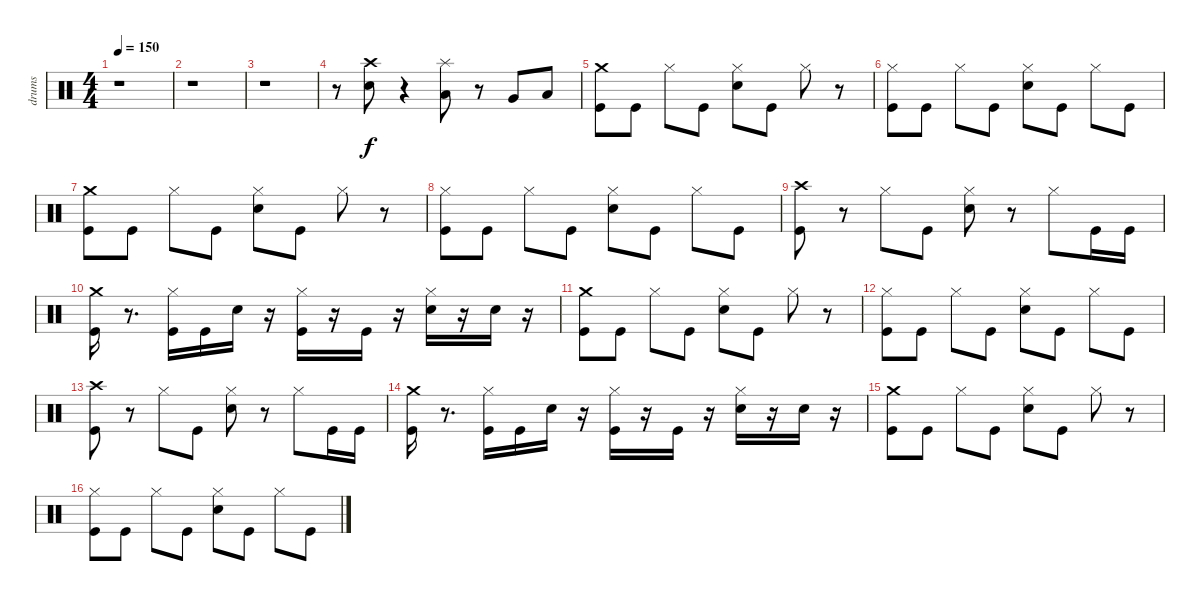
\track ("drums" "drums") {instrument percussion}
\staff {score}
\articulation defaults
\ts (4 4)
\tempo 150
\clef neutral
\ks c
r.1{dy f} |
r.1 |
r.1 |
r.8 ("Crash high (hit)" "Electric Snare (hit)").8 r.4 ("Splash (hit)" "Low Tom (hit)").8 r.8 "Very Low Tom (hit)".8 "Low Floor Tom (hit)".8 |
("Crash medium (hit)" "Kick (hit)").8 "Kick (hit)".8 "Hi-Hat (closed)".8 "Kick (hit)".8 ("Hi-Hat (closed)" "Electric Snare (hit)").8 "Kick (hit)".8 "Hi-Hat (closed)".8 r.8 |
("Hi-Hat (closed)" "Kick (hit)").8 "Kick (hit)".8 "Hi-Hat (closed)".8 "Kick (hit)".8 ("Hi-Hat (closed)" "Electric Snare (hit)").8 "Kick (hit)".8 "Hi-Hat (closed)".8 "Kick (hit)".8 |
("Crash medium (hit)" "Kick (hit)").8 "Kick (hit)".8 "Hi-Hat (closed)".8 "Kick (hit)".8 ("Hi-Hat (closed)" "Electric Snare (hit)").8 "Kick (hit)".8 "Hi-Hat (closed)".8 r.8 |
("Hi-Hat (closed)" "Kick (hit)").8 "Kick (hit)".8 "Hi-Hat (closed)".8 "Kick (hit)".8 ("Hi-Hat (closed)" "Electric Snare (hit)").8 "Kick (hit)".8 "Hi-Hat (closed)".8 "Kick (hit)".8 |
("Crash high (hit)" "Kick (hit)").8 r.8 "Hi-Hat (closed)".8 "Kick (hit)".8 ("Hi-Hat (closed)" "Electric Snare (hit)").8 r.8 "Hi-Hat (closed)".8 "Kick (hit)".16 "Kick (hit)".16 |
("Kick (hit)" "Crash medium (hit)").16 r.8{d} ("Hi-Hat (closed)" "Kick (hit)").16 "Kick (hit)".16 "Electric Snare (hit)".16 r.16 ("Hi-Hat (closed)" "Kick (hit)").16 r.16 "Kick (hit)".16 r.16 ("Hi-Hat (closed)" "Electric Snare (hit)").16 r.16 "Electric Snare (hit)".16 r.16 |
("Crash medium (hit)" "Kick (hit)").8 "Kick (hit)".8 "Hi-Hat (closed)".8 "Kick (hit)".8 ("Hi-Hat (closed)" "Electric Snare (hit)").8 "Kick (hit)".8 "Hi-Hat (closed)".8 r.8 |
("Hi-Hat (closed)" "Kick (hit)").8 "Kick (hit)".8 "Hi-Hat (closed)".8 "Kick (hit)".8 ("Hi-Hat (closed)" "Electric Snare (hit)").8 "Kick (hit)".8 "Hi-Hat (closed)".8 "Kick (hit)".8 |
("Crash high (hit)" "Kick (hit)").8 r.8 "Hi-Hat (closed)".8 "Kick (hit)".8 ("Hi-Hat (closed)" "Electric Snare (hit)").8 r.8 "Hi-Hat (closed)".8 "Kick (hit)".16 "Kick (hit)".16 |
("Kick (hit)" "Crash medium (hit)").16 r.8{d} ("Hi-Hat (closed)" "Kick (hit)").16 "Kick (hit)".16 "Electric Snare (hit)".16 r.16 ("Hi-Hat (closed)" "Kick (hit)").16 r.16 "Kick (hit)".16 r.16 ("Hi-Hat (closed)" "Electric Snare (hit)").16 r.16 "Electric Snare (hit)".16 r.16 |
("Crash medium (hit)" "Kick (hit)").8 "Kick (hit)".8 "Hi-Hat (closed)".8 "Kick (hit)".8 ("Hi-Hat (closed)" "Electric Snare (hit)").8 "Kick (hit)".8 "Hi-Hat (closed)".8 r.8 |
("Hi-Hat (closed)" "Kick (hit)").8 "Kick (hit)".8 "Hi-Hat (closed)".8 "Kick (hit)".8 ("Hi-Hat (closed)" "Electric Snare (hit)").8 "Kick (hit)".8 "Hi-Hat (closed)".8 "Kick (hit)".8
